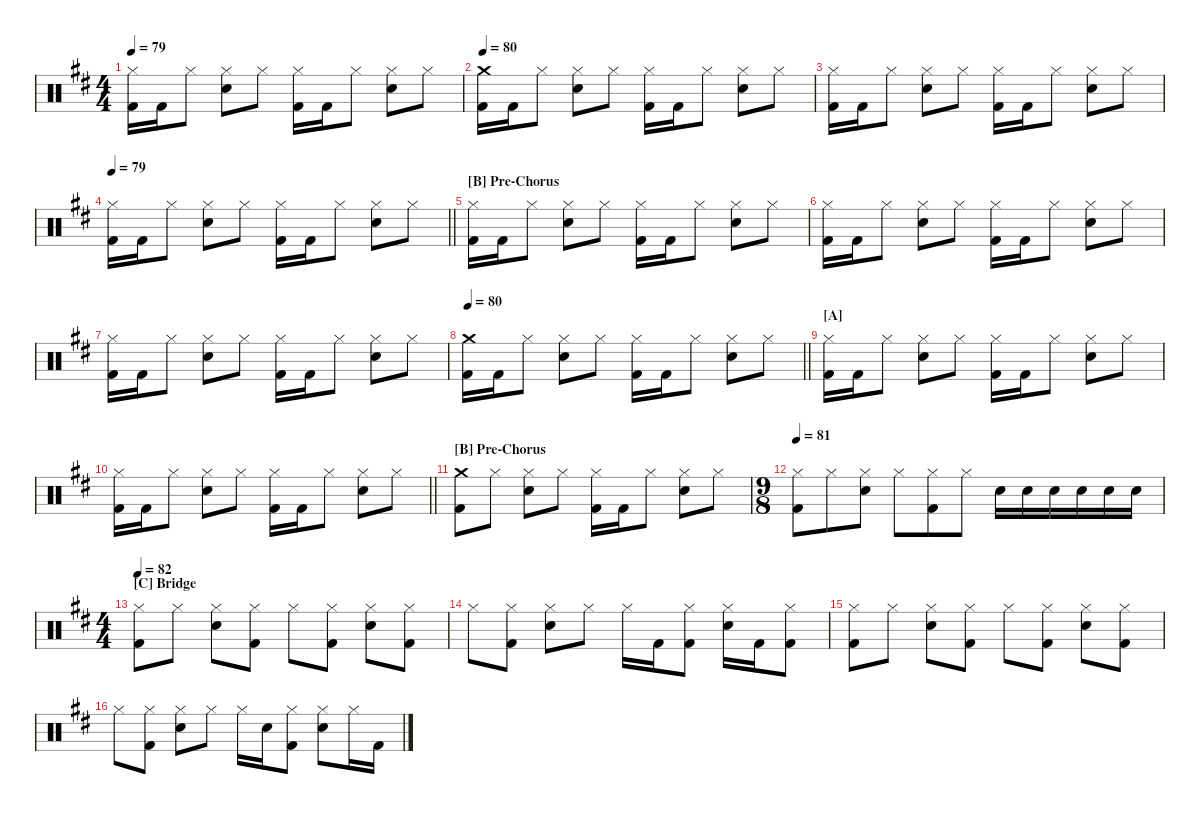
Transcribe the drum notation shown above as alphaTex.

\defaultSystemsLayout 4
\hideDynamics
\bracketExtendMode nobrackets
\singleTrackTrackNamePolicy hidden
\multiTrackTrackNamePolicy hidden
\otherSystemsTrackNameOrientation horizontal
\track ("Drumkit" "Drums") {defaultSystemsLayout 4 instrument percussion}
\staff {score}
\articulation defaults
\ts (4 4)
\tempo 79
\clef neutral
\ks d
("Kick (hit) 2"{acc forcenatural} "Hi-Hat (closed)"{acc forcenatural}).16{dy f beam Down} "Kick (hit) 2"{acc forcenatural}.16{beam Down} "Hi-Hat (closed)"{acc forcenatural}.8{beam Down} ("Snare (hit) 2"{acc forcenatural} "Hi-Hat (closed)"{acc forcenatural}).8{beam Down} "Hi-Hat (closed)"{acc forcenatural}.8{beam Down} ("Kick (hit) 2"{acc forcenatural} "Hi-Hat (closed)"{acc forcenatural}).16{beam Down} "Kick (hit) 2"{acc forcenatural}.16{beam Down} "Hi-Hat (closed)"{acc forcenatural}.8{beam Down} ("Snare (hit) 2"{acc forcenatural} "Hi-Hat (closed)"{acc forcenatural}).8{beam Down} "Hi-Hat (closed)"{acc forcenatural}.8{beam Down} |
\tempo 80
("Kick (hit) 2"{acc forcenatural} "Crash medium (hit)"{acc forcenatural}).16{beam Down} "Kick (hit) 2"{acc forcenatural}.16{beam Down} "Hi-Hat (closed)"{acc forcenatural}.8{beam Down} ("Snare (hit) 2"{acc forcenatural} "Hi-Hat (closed)"{acc forcenatural}).8{beam Down} "Hi-Hat (closed)"{acc forcenatural}.8{beam Down} ("Kick (hit) 2"{acc forcenatural} "Hi-Hat (closed)"{acc forcenatural}).16{beam Down} "Kick (hit) 2"{acc forcenatural}.16{beam Down} "Hi-Hat (closed)"{acc forcenatural}.8{beam Down} ("Snare (hit) 2"{acc forcenatural} "Hi-Hat (closed)"{acc forcenatural}).8{beam Down} "Hi-Hat (closed)"{acc forcenatural}.8{beam Down} |
("Kick (hit) 2"{acc forcenatural} "Hi-Hat (closed)"{acc forcenatural}).16{beam Down} "Kick (hit) 2"{acc forcenatural}.16{beam Down} "Hi-Hat (closed)"{acc forcenatural}.8{beam Down} ("Snare (hit) 2"{acc forcenatural} "Hi-Hat (closed)"{acc forcenatural}).8{beam Down} "Hi-Hat (closed)"{acc forcenatural}.8{beam Down} ("Kick (hit) 2"{acc forcenatural} "Hi-Hat (closed)"{acc forcenatural}).16{beam Down} "Kick (hit) 2"{acc forcenatural}.16{beam Down} "Hi-Hat (closed)"{acc forcenatural}.8{beam Down} ("Snare (hit) 2"{acc forcenatural} "Hi-Hat (closed)"{acc forcenatural}).8{beam Down} "Hi-Hat (closed)"{acc forcenatural}.8{beam Down} |
\tempo 79
\barLineRight lightlight
("Kick (hit) 2"{acc forcenatural} "Hi-Hat (closed)"{acc forcenatural}).16{beam Down} "Kick (hit) 2"{acc forcenatural}.16{beam Down} "Hi-Hat (closed)"{acc forcenatural}.8{beam Down} ("Snare (hit) 2"{acc forcenatural} "Hi-Hat (closed)"{acc forcenatural}).8{beam Down} "Hi-Hat (closed)"{acc forcenatural}.8{beam Down} ("Kick (hit) 2"{acc forcenatural} "Hi-Hat (closed)"{acc forcenatural}).16{beam Down} "Kick (hit) 2"{acc forcenatural}.16{beam Down} "Hi-Hat (closed)"{acc forcenatural}.8{beam Down} ("Snare (hit) 2"{acc forcenatural} "Hi-Hat (closed)"{acc forcenatural}).8{beam Down} "Hi-Hat (closed)"{acc forcenatural}.8{beam Down} |
\section ("B" "Pre-Chorus")
("Kick (hit) 2"{acc forcenatural} "Hi-Hat (closed)"{acc forcenatural}).16{beam Down} "Kick (hit) 2"{acc forcenatural}.16{beam Down} "Hi-Hat (closed)"{acc forcenatural}.8{beam Down} ("Snare (hit) 2"{acc forcenatural} "Hi-Hat (closed)"{acc forcenatural}).8{beam Down} "Hi-Hat (closed)"{acc forcenatural}.8{beam Down} ("Kick (hit) 2"{acc forcenatural} "Hi-Hat (closed)"{acc forcenatural}).16{beam Down} "Kick (hit) 2"{acc forcenatural}.16{beam Down} "Hi-Hat (closed)"{acc forcenatural}.8{beam Down} ("Snare (hit) 2"{acc forcenatural} "Hi-Hat (closed)"{acc forcenatural}).8{beam Down} "Hi-Hat (closed)"{acc forcenatural}.8{beam Down} |
("Kick (hit) 2"{acc forcenatural} "Hi-Hat (closed)"{acc forcenatural}).16{beam Down} "Kick (hit) 2"{acc forcenatural}.16{beam Down} "Hi-Hat (closed)"{acc forcenatural}.8{beam Down} ("Snare (hit) 2"{acc forcenatural} "Hi-Hat (closed)"{acc forcenatural}).8{beam Down} "Hi-Hat (closed)"{acc forcenatural}.8{beam Down} ("Kick (hit) 2"{acc forcenatural} "Hi-Hat (closed)"{acc forcenatural}).16{beam Down} "Kick (hit) 2"{acc forcenatural}.16{beam Down} "Hi-Hat (closed)"{acc forcenatural}.8{beam Down} ("Snare (hit) 2"{acc forcenatural} "Hi-Hat (closed)"{acc forcenatural}).8{beam Down} "Hi-Hat (closed)"{acc forcenatural}.8{beam Down} |
("Kick (hit) 2"{acc forcenatural} "Hi-Hat (closed)"{acc forcenatural}).16{beam Down} "Kick (hit) 2"{acc forcenatural}.16{beam Down} "Hi-Hat (closed)"{acc forcenatural}.8{beam Down} ("Snare (hit) 2"{acc forcenatural} "Hi-Hat (closed)"{acc forcenatural}).8{beam Down} "Hi-Hat (closed)"{acc forcenatural}.8{beam Down} ("Kick (hit) 2"{acc forcenatural} "Hi-Hat (closed)"{acc forcenatural}).16{beam Down} "Kick (hit) 2"{acc forcenatural}.16{beam Down} "Hi-Hat (closed)"{acc forcenatural}.8{beam Down} ("Snare (hit) 2"{acc forcenatural} "Hi-Hat (closed)"{acc forcenatural}).8{beam Down} "Hi-Hat (closed)"{acc forcenatural}.8{beam Down} |
\tempo 80
\barLineRight lightlight
("Kick (hit) 2"{acc forcenatural} "Crash medium (hit)"{acc forcenatural}).16{beam Down} "Kick (hit) 2"{acc forcenatural}.16{beam Down} "Hi-Hat (closed)"{acc forcenatural}.8{beam Down} ("Snare (hit) 2"{acc forcenatural} "Hi-Hat (closed)"{acc forcenatural}).8{beam Down} "Hi-Hat (closed)"{acc forcenatural}.8{beam Down} ("Kick (hit) 2"{acc forcenatural} "Hi-Hat (closed)"{acc forcenatural}).16{beam Down} "Kick (hit) 2"{acc forcenatural}.16{beam Down} "Hi-Hat (closed)"{acc forcenatural}.8{beam Down} ("Snare (hit) 2"{acc forcenatural} "Hi-Hat (closed)"{acc forcenatural}).8{beam Down} "Hi-Hat (closed)"{acc forcenatural}.8{beam Down} |
\section ("A" "")
("Kick (hit) 2"{acc forcenatural} "Hi-Hat (closed)"{acc forcenatural}).16{beam Down} "Kick (hit) 2"{acc forcenatural}.16{beam Down} "Hi-Hat (closed)"{acc forcenatural}.8{beam Down} ("Snare (hit) 2"{acc forcenatural} "Hi-Hat (closed)"{acc forcenatural}).8{beam Down} "Hi-Hat (closed)"{acc forcenatural}.8{beam Down} ("Kick (hit) 2"{acc forcenatural} "Hi-Hat (closed)"{acc forcenatural}).16{beam Down} "Kick (hit) 2"{acc forcenatural}.16{beam Down} "Hi-Hat (closed)"{acc forcenatural}.8{beam Down} ("Snare (hit) 2"{acc forcenatural} "Hi-Hat (closed)"{acc forcenatural}).8{beam Down} "Hi-Hat (closed)"{acc forcenatural}.8{beam Down} |
\barLineRight lightlight
("Kick (hit) 2"{acc forcenatural} "Hi-Hat (closed)"{acc forcenatural}).16{beam Down} "Kick (hit) 2"{acc forcenatural}.16{beam Down} "Hi-Hat (closed)"{acc forcenatural}.8{beam Down} ("Snare (hit) 2"{acc forcenatural} "Hi-Hat (closed)"{acc forcenatural}).8{beam Down} "Hi-Hat (closed)"{acc forcenatural}.8{beam Down} ("Kick (hit) 2"{acc forcenatural} "Hi-Hat (closed)"{acc forcenatural}).16{beam Down} "Kick (hit) 2"{acc forcenatural}.16{beam Down} "Hi-Hat (closed)"{acc forcenatural}.8{beam Down} ("Snare (hit) 2"{acc forcenatural} "Hi-Hat (closed)"{acc forcenatural}).8{beam Down} "Hi-Hat (closed)"{acc forcenatural}.8{beam Down} |
\section ("B" "Pre-Chorus")
("Kick (hit) 2"{acc forcenatural} "Crash medium (hit)"{acc forcenatural}).8{beam Down} "Hi-Hat (closed)"{acc forcenatural}.8{beam Down} ("Snare (hit) 2"{acc forcenatural} "Hi-Hat (closed)"{acc forcenatural}).8{beam Down} "Hi-Hat (closed)"{acc forcenatural}.8{beam Down} ("Kick (hit) 2"{acc forcenatural} "Hi-Hat (closed)"{acc forcenatural}).16{beam Down} "Kick (hit) 2"{acc forcenatural}.16{beam Down} "Hi-Hat (closed)"{acc forcenatural}.8{beam Down} ("Snare (hit) 2"{acc forcenatural} "Hi-Hat (closed)"{acc forcenatural}).8{beam Down} "Hi-Hat (closed)"{acc forcenatural}.8{beam Down} |
\ts (9 8)
\beaming (8 3 3 3)
\tempo 81
("Kick (hit) 2"{acc forcenatural} "Hi-Hat (closed)"{acc forcenatural}).8{beam Down} "Hi-Hat (closed)"{acc forcenatural}.8{beam Down} ("Snare (hit) 2"{acc forcenatural} "Hi-Hat (closed)"{acc forcenatural}).8{beam Down} "Hi-Hat (closed)"{acc forcenatural}.8{beam Down} ("Kick (hit) 2"{acc forcenatural} "Hi-Hat (closed)"{acc forcenatural}).8{beam Down} "Hi-Hat (closed)"{acc forcenatural}.8{beam Down} "Snare (hit) 2"{acc forcenatural}.16{beam Down} "Snare (hit) 2"{acc forcenatural}.16{beam Down} "Snare (hit) 2"{acc forcenatural}.16{beam Down} "Snare (hit) 2"{acc forcenatural}.16{beam Down} "Snare (hit) 2"{acc forcenatural}.16{beam Down} "Snare (hit) 2"{acc forcenatural}.16{beam Down} |
\ts (4 4)
\beaming (8 2 2 2 2)
\section ("C" "Bridge")
\tempo 82
("Kick (hit) 2"{acc forcenatural} "Hi-Hat (closed)"{acc forcenatural}).8{beam Down} "Hi-Hat (closed)"{acc forcenatural}.8{beam Down} ("Snare (hit) 2"{acc forcenatural} "Hi-Hat (closed)"{acc forcenatural}).8{beam Down} ("Kick (hit) 2"{acc forcenatural} "Hi-Hat (closed)"{acc forcenatural}).8{beam Down} "Hi-Hat (closed)"{acc forcenatural}.8{beam Down} ("Kick (hit) 2"{acc forcenatural} "Hi-Hat (closed)"{acc forcenatural}).8{beam Down} ("Snare (hit) 2"{acc forcenatural} "Hi-Hat (closed)"{acc forcenatural}).8{beam Down} ("Kick (hit) 2"{acc forcenatural} "Hi-Hat (closed)"{acc forcenatural}).8{beam Down} |
"Hi-Hat (closed)"{acc forcenatural}.8{beam Down} ("Kick (hit) 2"{acc forcenatural} "Hi-Hat (closed)"{acc forcenatural}).8{beam Down} ("Snare (hit) 2"{acc forcenatural} "Hi-Hat (closed)"{acc forcenatural}).8{beam Down} "Hi-Hat (closed)"{acc forcenatural}.8{beam Down} "Hi-Hat (closed)"{acc forcenatural}.16{beam Down} "Kick (hit) 2"{acc forcenatural}.16{beam Down} ("Kick (hit) 2"{acc forcenatural} "Hi-Hat (closed)"{acc forcenatural}).8{beam Down} ("Snare (hit) 2"{acc forcenatural} "Hi-Hat (closed)"{acc forcenatural}).16{beam Down} "Kick (hit) 2"{acc forcenatural}.16{beam Down} ("Kick (hit) 2"{acc forcenatural} "Hi-Hat (closed)"{acc forcenatural}).8{beam Down} |
("Kick (hit) 2"{acc forcenatural} "Hi-Hat (closed)"{acc forcenatural}).8{beam Down} "Hi-Hat (closed)"{acc forcenatural}.8{beam Down} ("Snare (hit) 2"{acc forcenatural} "Hi-Hat (closed)"{acc forcenatural}).8{beam Down} ("Kick (hit) 2"{acc forcenatural} "Hi-Hat (closed)"{acc forcenatural}).8{beam Down} "Hi-Hat (closed)"{acc forcenatural}.8{beam Down} ("Kick (hit) 2"{acc forcenatural} "Hi-Hat (closed)"{acc forcenatural}).8{beam Down} ("Snare (hit) 2"{acc forcenatural} "Hi-Hat (closed)"{acc forcenatural}).8{beam Down} ("Kick (hit) 2"{acc forcenatural} "Hi-Hat (closed)"{acc forcenatural}).8{beam Down} |
"Hi-Hat (closed)"{acc forcenatural}.8{beam Down} ("Kick (hit) 2"{acc forcenatural} "Hi-Hat (closed)"{acc forcenatural}).8{beam Down} ("Snare (hit) 2"{acc forcenatural} "Hi-Hat (closed)"{acc forcenatural}).8{beam Down} "Hi-Hat (closed)"{acc forcenatural}.8{beam Down} "Hi-Hat (closed)"{acc forcenatural}.16{beam Down} "Snare (hit) 2"{acc forcenatural}.16{beam Down} ("Kick (hit) 2"{acc forcenatural} "Hi-Hat (closed)"{acc forcenatural}).8{beam Down} ("Snare (hit) 2"{acc forcenatural} "Hi-Hat (closed)"{acc forcenatural}).8{beam Down} "Hi-Hat (closed)"{acc forcenatural}.16{beam Down} "Kick (hit) 2"{acc forcenatural}.16{beam Down}
